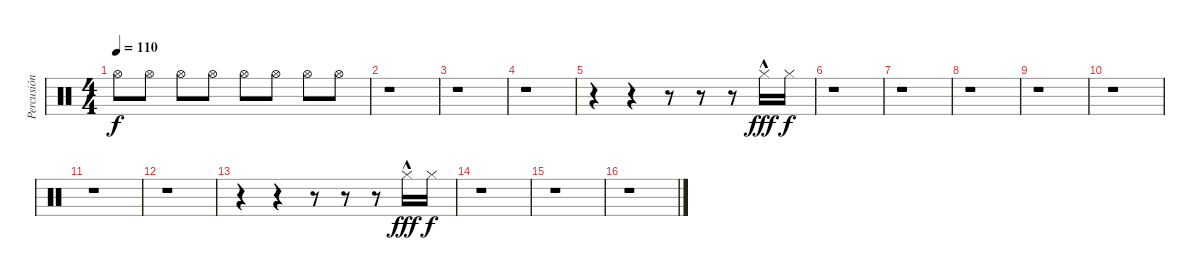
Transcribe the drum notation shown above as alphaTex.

\track ("Percusión" "Percusión") {instrument percussion}
\staff {score}
\articulation defaults
\ts (4 4)
\tempo 110
\clef neutral
\ks c "Hi-Hat (open)".8{dy f} "Hi-Hat (open)".8 "Hi-Hat (open)".8 "Hi-Hat (open)".8 "Hi-Hat (open)".8 "Hi-Hat (open)".8 "Hi-Hat (open)".8 "Hi-Hat (open)".8
|
r.1 |
r.1 |
r.1 |
r.4 r.4 r.8 r.8 r.8 "Hi-Hat (closed)"{hac}.16{dy fff} "Hi-Hat (closed)".16{dy f} |
r.1 |
r.1 |
r.1 |
r.1 |
r.1 |
r.1 |
r.1 |
r.4 r.4 r.8 r.8 r.8 "Hi-Hat (closed)"{hac}.16{dy fff} "Hi-Hat (closed)".16{dy f} |
r.1 |
r.1 |
r.1
